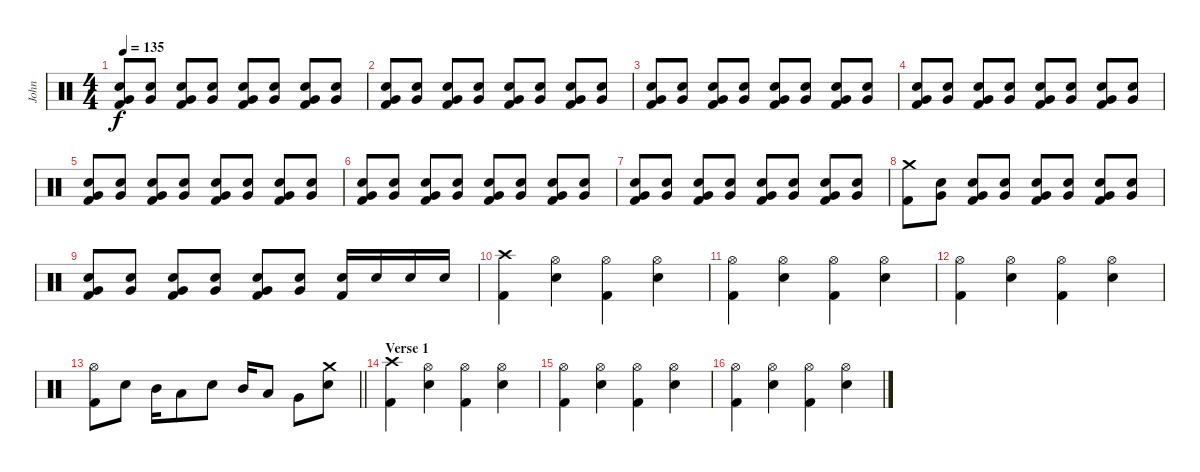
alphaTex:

\track ("John" "John") {instrument percussion}
\staff {score}
\articulation defaults
\ts (4 4)
\tempo 135
\clef neutral
\ks c
("Very Low Tom (hit)" "Electric Snare (hit)" "Kick (hit) 2").8{dy f} ("Very Low Tom (hit)" "Electric Snare (hit)").8 ("Very Low Tom (hit)" "Electric Snare (hit)" "Kick (hit) 2").8 ("Very Low Tom (hit)" "Electric Snare (hit)").8 ("Very Low Tom (hit)" "Electric Snare (hit)" "Kick (hit) 2").8 ("Very Low Tom (hit)" "Electric Snare (hit)").8 ("Very Low Tom (hit)" "Electric Snare (hit)" "Kick (hit) 2").8 ("Very Low Tom (hit)" "Electric Snare (hit)").8 |
("Very Low Tom (hit)" "Electric Snare (hit)" "Kick (hit) 2").8 ("Very Low Tom (hit)" "Electric Snare (hit)").8 ("Very Low Tom (hit)" "Electric Snare (hit)" "Kick (hit) 2").8 ("Very Low Tom (hit)" "Electric Snare (hit)").8 ("Very Low Tom (hit)" "Electric Snare (hit)" "Kick (hit) 2").8 ("Very Low Tom (hit)" "Electric Snare (hit)").8 ("Very Low Tom (hit)" "Electric Snare (hit)" "Kick (hit) 2").8 ("Very Low Tom (hit)" "Electric Snare (hit)").8 |
("Very Low Tom (hit)" "Electric Snare (hit)" "Kick (hit) 2").8 ("Very Low Tom (hit)" "Electric Snare (hit)").8 ("Very Low Tom (hit)" "Electric Snare (hit)" "Kick (hit) 2").8 ("Very Low Tom (hit)" "Electric Snare (hit)").8 ("Very Low Tom (hit)" "Electric Snare (hit)" "Kick (hit) 2").8 ("Very Low Tom (hit)" "Electric Snare (hit)").8 ("Very Low Tom (hit)" "Electric Snare (hit)" "Kick (hit) 2").8 ("Very Low Tom (hit)" "Electric Snare (hit)").8 |
("Very Low Tom (hit)" "Electric Snare (hit)" "Kick (hit) 2").8{volume 8} ("Very Low Tom (hit)" "Electric Snare (hit)").8 ("Very Low Tom (hit)" "Electric Snare (hit)" "Kick (hit) 2").8 ("Very Low Tom (hit)" "Electric Snare (hit)").8 ("Very Low Tom (hit)" "Electric Snare (hit)" "Kick (hit) 2").8 ("Very Low Tom (hit)" "Electric Snare (hit)").8 ("Very Low Tom (hit)" "Electric Snare (hit)" "Kick (hit) 2").8 ("Very Low Tom (hit)" "Electric Snare (hit)").8 |
("Very Low Tom (hit)" "Electric Snare (hit)" "Kick (hit) 2").8 ("Very Low Tom (hit)" "Electric Snare (hit)").8 ("Very Low Tom (hit)" "Electric Snare (hit)" "Kick (hit) 2").8 ("Very Low Tom (hit)" "Electric Snare (hit)").8 ("Very Low Tom (hit)" "Electric Snare (hit)" "Kick (hit) 2").8 ("Very Low Tom (hit)" "Electric Snare (hit)").8 ("Very Low Tom (hit)" "Electric Snare (hit)" "Kick (hit) 2").8 ("Very Low Tom (hit)" "Electric Snare (hit)").8 |
("Very Low Tom (hit)" "Electric Snare (hit)" "Kick (hit) 2").8 ("Very Low Tom (hit)" "Electric Snare (hit)").8 ("Very Low Tom (hit)" "Electric Snare (hit)" "Kick (hit) 2").8 ("Very Low Tom (hit)" "Electric Snare (hit)").8 ("Very Low Tom (hit)" "Electric Snare (hit)" "Kick (hit) 2").8 ("Very Low Tom (hit)" "Electric Snare (hit)").8 ("Very Low Tom (hit)" "Electric Snare (hit)" "Kick (hit) 2").8 ("Very Low Tom (hit)" "Electric Snare (hit)").8 |
("Very Low Tom (hit)" "Electric Snare (hit)" "Kick (hit) 2").8 ("Very Low Tom (hit)" "Electric Snare (hit)").8 ("Very Low Tom (hit)" "Electric Snare (hit)" "Kick (hit) 2").8 ("Very Low Tom (hit)" "Electric Snare (hit)").8 ("Very Low Tom (hit)" "Electric Snare (hit)" "Kick (hit) 2").8 ("Very Low Tom (hit)" "Electric Snare (hit)").8 ("Very Low Tom (hit)" "Electric Snare (hit)" "Kick (hit) 2").8 ("Very Low Tom (hit)" "Electric Snare (hit)").8 |
("Crash medium (hit)" "Kick (hit) 2").8{volume 12} ("Very Low Tom (hit)" "Electric Snare (hit)").8 ("Very Low Tom (hit)" "Electric Snare (hit)" "Kick (hit) 2").8 ("Very Low Tom (hit)" "Electric Snare (hit)").8 ("Very Low Tom (hit)" "Electric Snare (hit)" "Kick (hit) 2").8 ("Very Low Tom (hit)" "Electric Snare (hit)").8 ("Very Low Tom (hit)" "Electric Snare (hit)" "Kick (hit) 2").8 ("Very Low Tom (hit)" "Electric Snare (hit)").8 |
("Very Low Tom (hit)" "Electric Snare (hit)" "Kick (hit) 2").8 ("Very Low Tom (hit)" "Electric Snare (hit)").8 ("Very Low Tom (hit)" "Electric Snare (hit)" "Kick (hit) 2").8 ("Very Low Tom (hit)" "Electric Snare (hit)").8 ("Very Low Tom (hit)" "Electric Snare (hit)" "Kick (hit) 2").8 ("Very Low Tom (hit)" "Electric Snare (hit)").8 ("Electric Snare (hit)" "Kick (hit) 2").16 "Electric Snare (hit)".16 "Electric Snare (hit)".16 "Electric Snare (hit)".16 |
("Crash high (hit)" "Kick (hit) 2").4 ("Hi-Hat (open)" "Electric Snare (hit)").4 ("Hi-Hat (open)" "Kick (hit) 2").4 ("Hi-Hat (open)" "Electric Snare (hit)").4 |
("Hi-Hat (open)" "Kick (hit) 2").4 ("Hi-Hat (open)" "Electric Snare (hit)").4 ("Hi-Hat (open)" "Kick (hit) 2").4 ("Hi-Hat (open)" "Electric Snare (hit)").4 |
("Hi-Hat (open)" "Kick (hit) 2").4 ("Hi-Hat (open)" "Electric Snare (hit)").4 ("Hi-Hat (open)" "Kick (hit) 2").4 ("Hi-Hat (open)" "Electric Snare (hit)").4 |
\barLineRight lightlight
("Hi-Hat (open)" "Kick (hit) 2").8 "Electric Snare (hit)".8 "Mid Tom (hit)".16 "Low Tom (hit)".8 "Electric Snare (hit)".8 "Mid Tom (hit)".16 "Low Tom (hit)".8 "Very Low Tom (hit)".8 ("Crash medium (hit)" "Electric Snare (hit)").8 |
\section ("" "Verse 1")
("Crash high (hit)" "Kick (hit) 2").4 ("Hi-Hat (open)" "Electric Snare (hit)").4 ("Hi-Hat (open)" "Kick (hit) 2").4 ("Hi-Hat (open)" "Electric Snare (hit)").4 |
("Hi-Hat (open)" "Kick (hit) 2").4 ("Hi-Hat (open)" "Electric Snare (hit)").4 ("Hi-Hat (open)" "Kick (hit) 2").4 ("Hi-Hat (open)" "Electric Snare (hit)").4 |
("Hi-Hat (open)" "Kick (hit) 2").4 ("Hi-Hat (open)" "Electric Snare (hit)").4 ("Hi-Hat (open)" "Kick (hit) 2").4 ("Hi-Hat (open)" "Electric Snare (hit)").4
